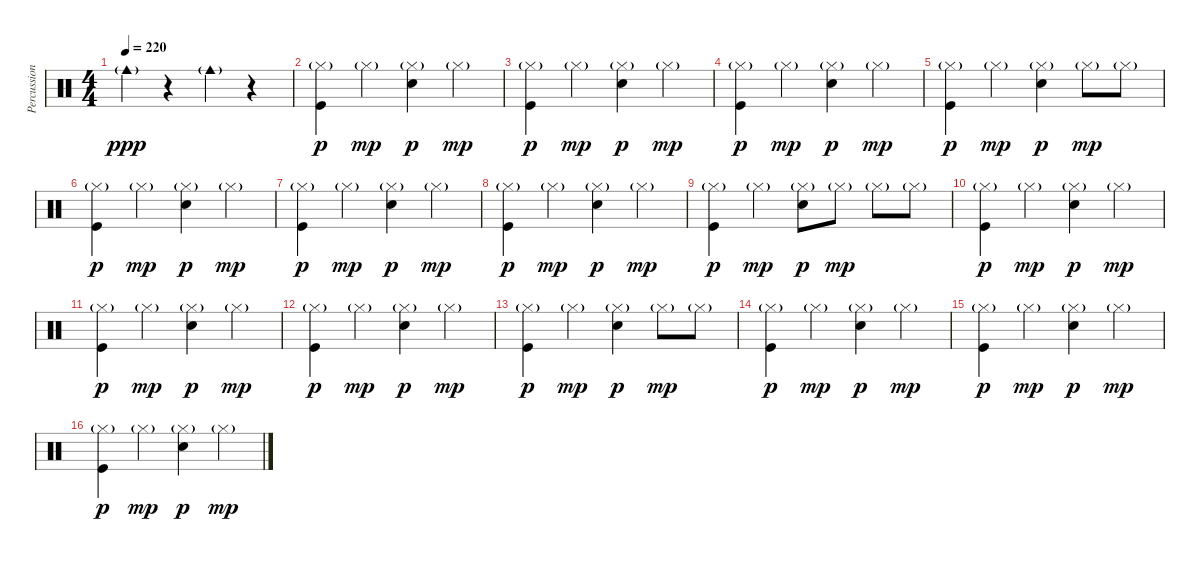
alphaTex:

\track ("Percussion" "Percussion") {instrument percussion}
\staff {score}
\articulation defaults
\ts (4 4)
\tempo 220
\clef neutral
\ks c "Cowbell medium (hit)"{g}.4{dy ppp}
r.4 "Cowbell medium (hit)"{g}.4 r.4 |
("Hi-Hat (closed)"{g} "Kick (hit)").4{dy p} "Hi-Hat (closed)"{g}.4{dy mp} ("Hi-Hat (closed)"{g} "Electric Snare (hit)").4{dy p} "Hi-Hat (closed)"{g}.4{dy mp} |
("Hi-Hat (closed)"{g} "Kick (hit)").4{dy p} "Hi-Hat (closed)"{g}.4{dy mp} ("Hi-Hat (closed)"{g} "Electric Snare (hit)").4{dy p} "Hi-Hat (closed)"{g}.4{dy mp} |
("Hi-Hat (closed)"{g} "Kick (hit)").4{dy p} "Hi-Hat (closed)"{g}.4{dy mp} ("Hi-Hat (closed)"{g} "Electric Snare (hit)").4{dy p} "Hi-Hat (closed)"{g}.4{dy mp} |
("Hi-Hat (closed)"{g} "Kick (hit)").4{dy p} "Hi-Hat (closed)"{g}.4{dy mp} ("Hi-Hat (closed)"{g} "Electric Snare (hit)").4{dy p} "Hi-Hat (closed)"{g}.8{dy mp} "Hi-Hat (closed)"{g}.8 |
("Hi-Hat (closed)"{g} "Kick (hit)").4{dy p} "Hi-Hat (closed)"{g}.4{dy mp} ("Hi-Hat (closed)"{g} "Electric Snare (hit)").4{dy p} "Hi-Hat (closed)"{g}.4{dy mp} |
("Hi-Hat (closed)"{g} "Kick (hit)").4{dy p} "Hi-Hat (closed)"{g}.4{dy mp} ("Hi-Hat (closed)"{g} "Electric Snare (hit)").4{dy p} "Hi-Hat (closed)"{g}.4{dy mp} |
("Hi-Hat (closed)"{g} "Kick (hit)").4{dy p} "Hi-Hat (closed)"{g}.4{dy mp} ("Hi-Hat (closed)"{g} "Electric Snare (hit)").4{dy p} "Hi-Hat (closed)"{g}.4{dy mp} |
("Hi-Hat (closed)"{g} "Kick (hit)").4{dy p} "Hi-Hat (closed)"{g}.4{dy mp} ("Hi-Hat (closed)"{g} "Electric Snare (hit)").8{dy p} "Hi-Hat (closed)"{g}.8{dy mp} "Hi-Hat (closed)"{g}.8 "Hi-Hat (closed)"{g}.8 |
("Hi-Hat (closed)"{g} "Kick (hit)").4{dy p} "Hi-Hat (closed)"{g}.4{dy mp} ("Hi-Hat (closed)"{g} "Electric Snare (hit)").4{dy p} "Hi-Hat (closed)"{g}.4{dy mp} |
("Hi-Hat (closed)"{g} "Kick (hit)").4{dy p} "Hi-Hat (closed)"{g}.4{dy mp} ("Hi-Hat (closed)"{g} "Electric Snare (hit)").4{dy p} "Hi-Hat (closed)"{g}.4{dy mp} |
("Hi-Hat (closed)"{g} "Kick (hit)").4{dy p} "Hi-Hat (closed)"{g}.4{dy mp} ("Hi-Hat (closed)"{g} "Electric Snare (hit)").4{dy p} "Hi-Hat (closed)"{g}.4{dy mp} |
("Hi-Hat (closed)"{g} "Kick (hit)").4{dy p} "Hi-Hat (closed)"{g}.4{dy mp} ("Hi-Hat (closed)"{g} "Electric Snare (hit)").4{dy p} "Hi-Hat (closed)"{g}.8{dy mp} "Hi-Hat (closed)"{g}.8 |
("Hi-Hat (closed)"{g} "Kick (hit)").4{dy p} "Hi-Hat (closed)"{g}.4{dy mp} ("Hi-Hat (closed)"{g} "Electric Snare (hit)").4{dy p} "Hi-Hat (closed)"{g}.4{dy mp} |
("Hi-Hat (closed)"{g} "Kick (hit)").4{dy p} "Hi-Hat (closed)"{g}.4{dy mp} ("Hi-Hat (closed)"{g} "Electric Snare (hit)").4{dy p} "Hi-Hat (closed)"{g}.4{dy mp} |
("Hi-Hat (closed)"{g} "Kick (hit)").4{dy p} "Hi-Hat (closed)"{g}.4{dy mp} ("Hi-Hat (closed)"{g} "Electric Snare (hit)").4{dy p} "Hi-Hat (closed)"{g}.4{dy mp}
